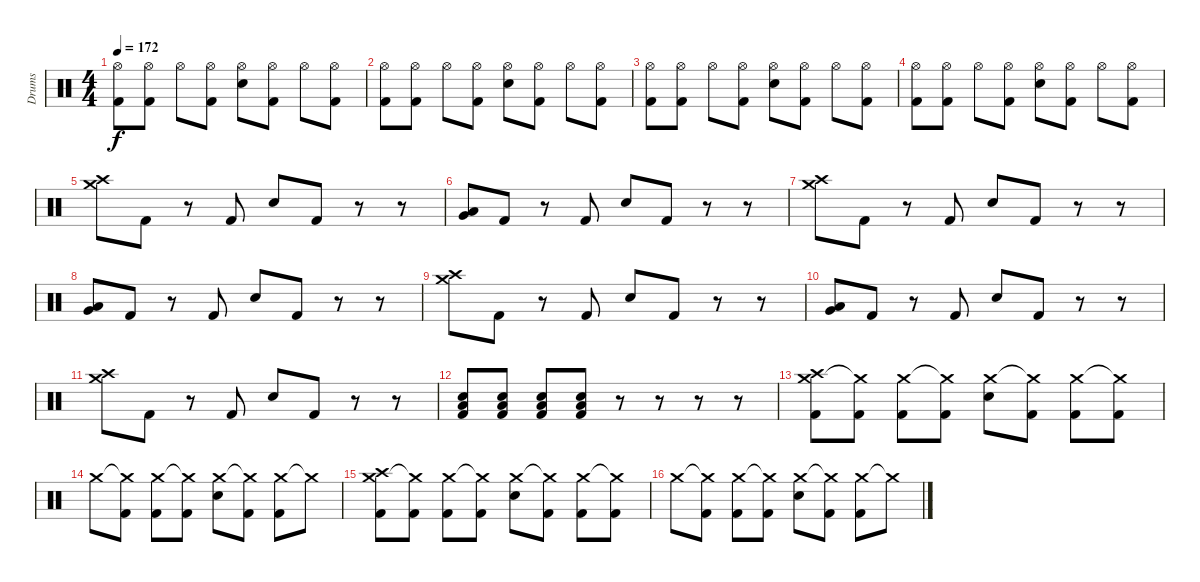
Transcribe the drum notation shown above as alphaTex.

\track ("Drums" "Drums") {instrument percussion}
\staff {score}
\articulation defaults
\ts (4 4)
\tempo 172
\clef neutral
\ks c
("Hi-Hat (open)" "Kick (hit) 2").8{dy f} ("Hi-Hat (open)" "Kick (hit) 2").8 "Hi-Hat (open)".8 ("Hi-Hat (open)" "Kick (hit) 2").8 ("Hi-Hat (open)" "Electric Snare (hit)").8 ("Hi-Hat (open)" "Kick (hit) 2").8 "Hi-Hat (open)".8 ("Hi-Hat (open)" "Kick (hit) 2").8 |
("Hi-Hat (open)" "Kick (hit) 2").8 ("Hi-Hat (open)" "Kick (hit) 2").8 "Hi-Hat (open)".8 ("Hi-Hat (open)" "Kick (hit) 2").8 ("Hi-Hat (open)" "Electric Snare (hit)").8 ("Hi-Hat (open)" "Kick (hit) 2").8 "Hi-Hat (open)".8 ("Hi-Hat (open)" "Kick (hit) 2").8 |
("Hi-Hat (open)" "Kick (hit) 2").8 ("Hi-Hat (open)" "Kick (hit) 2").8 "Hi-Hat (open)".8 ("Hi-Hat (open)" "Kick (hit) 2").8 ("Hi-Hat (open)" "Electric Snare (hit)").8 ("Hi-Hat (open)" "Kick (hit) 2").8 "Hi-Hat (open)".8 ("Hi-Hat (open)" "Kick (hit) 2").8 |
("Hi-Hat (open)" "Kick (hit) 2").8 ("Hi-Hat (open)" "Kick (hit) 2").8 "Hi-Hat (open)".8 ("Hi-Hat (open)" "Kick (hit) 2").8 ("Hi-Hat (open)" "Electric Snare (hit)").8 ("Hi-Hat (open)" "Kick (hit) 2").8 "Hi-Hat (open)".8 ("Hi-Hat (open)" "Kick (hit) 2").8 |
("Crash medium (hit)" "Crash high (hit)").8 "Kick (hit) 2".8 r.8 "Kick (hit) 2".8 "Electric Snare (hit)".8 "Kick (hit) 2".8 r.8 r.8 |
("Very Low Tom (hit)" "Low Floor Tom (hit)").8 "Kick (hit) 2".8 r.8 "Kick (hit) 2".8 "Electric Snare (hit)".8 "Kick (hit) 2".8 r.8 r.8 |
("Crash medium (hit)" "Crash high (hit)").8 "Kick (hit) 2".8 r.8 "Kick (hit) 2".8 "Electric Snare (hit)".8 "Kick (hit) 2".8 r.8 r.8 |
("Very Low Tom (hit)" "Low Floor Tom (hit)").8 "Kick (hit) 2".8 r.8 "Kick (hit) 2".8 "Electric Snare (hit)".8 "Kick (hit) 2".8 r.8 r.8 |
("Crash medium (hit)" "Crash high (hit)").8 "Kick (hit) 2".8 r.8 "Kick (hit) 2".8 "Electric Snare (hit)".8 "Kick (hit) 2".8 r.8 r.8 |
("Very Low Tom (hit)" "Low Floor Tom (hit)").8 "Kick (hit) 2".8 r.8 "Kick (hit) 2".8 "Electric Snare (hit)".8 "Kick (hit) 2".8 r.8 r.8 |
("Crash medium (hit)" "Crash high (hit)").8 "Kick (hit) 2".8 r.8 "Kick (hit) 2".8 "Electric Snare (hit)".8 "Kick (hit) 2".8 r.8 r.8 |
("Low Floor Tom (hit)" "Electric Snare (hit)" "Kick (hit) 2").8 ("Low Floor Tom (hit)" "Electric Snare (hit)" "Kick (hit) 2").8 ("Low Floor Tom (hit)" "Electric Snare (hit)" "Kick (hit) 2").8 ("Low Floor Tom (hit)" "Electric Snare (hit)" "Kick (hit) 2").8 r.8 r.8 r.8 r.8 |
("Crash medium (hit)" "Crash high (hit)" "Kick (hit) 2").8 ("Crash medium (hit)"{t} "Kick (hit) 2").8 ("Crash medium (hit)" "Kick (hit) 2").8 ("Crash medium (hit)"{t} "Kick (hit) 2").8 ("Crash medium (hit)" "Electric Snare (hit)").8 ("Crash medium (hit)"{t} "Kick (hit) 2").8 ("Crash medium (hit)" "Kick (hit) 2").8 ("Crash medium (hit)"{t} "Kick (hit) 2").8 |
"Crash medium (hit)".8 ("Crash medium (hit)"{t} "Kick (hit) 2").8 ("Crash medium (hit)" "Kick (hit) 2").8 ("Crash medium (hit)"{t} "Kick (hit) 2").8 ("Crash medium (hit)" "Electric Snare (hit)").8 ("Crash medium (hit)"{t} "Kick (hit) 2").8 ("Crash medium (hit)" "Kick (hit) 2").8 "Crash medium (hit)"{t}.8 |
("Crash medium (hit)" "Crash high (hit)" "Kick (hit) 2").8 ("Crash medium (hit)"{t} "Kick (hit) 2").8 ("Crash medium (hit)" "Kick (hit) 2").8 ("Crash medium (hit)"{t} "Kick (hit) 2").8 ("Crash medium (hit)" "Electric Snare (hit)").8 ("Crash medium (hit)"{t} "Kick (hit) 2").8 ("Crash medium (hit)" "Kick (hit) 2").8 ("Crash medium (hit)"{t} "Kick (hit) 2").8 |
"Crash medium (hit)".8 ("Crash medium (hit)"{t} "Kick (hit) 2").8 ("Crash medium (hit)" "Kick (hit) 2").8 ("Crash medium (hit)"{t} "Kick (hit) 2").8 ("Crash medium (hit)" "Electric Snare (hit)").8 ("Crash medium (hit)"{t} "Kick (hit) 2").8 ("Crash medium (hit)" "Kick (hit) 2").8 "Crash medium (hit)"{t}.8
